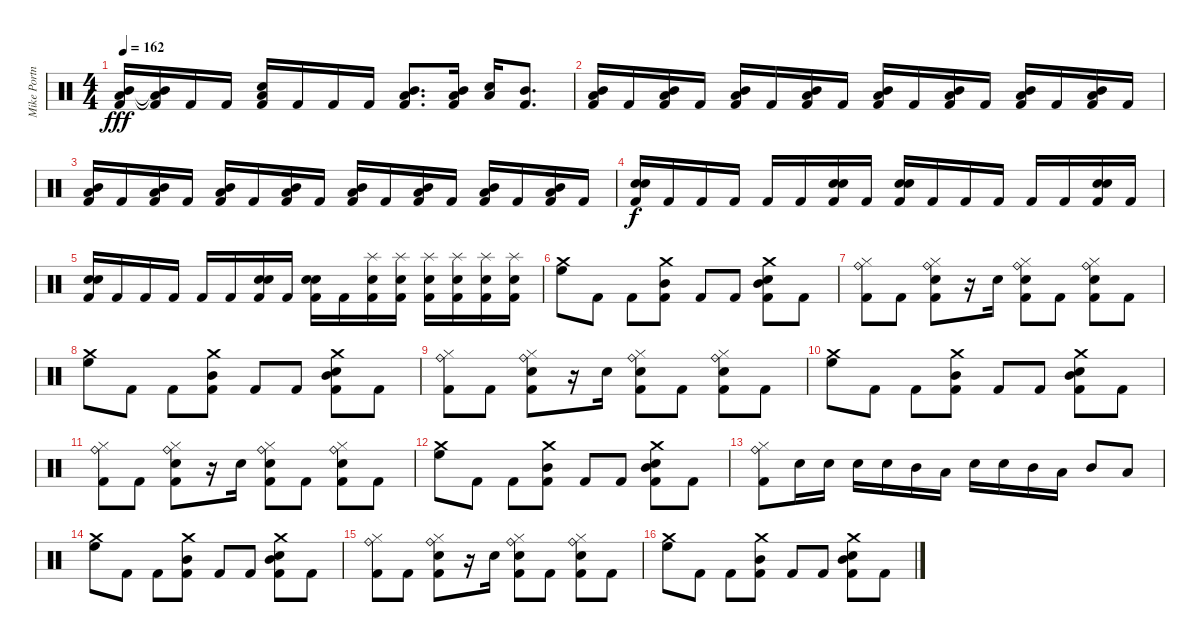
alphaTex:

\track ("Mike Portnoy" "Mike Portn") {instrument percussion}
\staff {score}
\articulation defaults
\ts (4 4)
\tempo 162
\clef neutral
\ks c
("Mid Tom (hit)" "Low Tom (hit)" "Kick (hit) 2").16{dy fff} ("Mid Tom (hit)"{t} "Low Tom (hit)"{t} "Kick (hit) 2").16 "Kick (hit) 2".16 "Kick (hit) 2".16 ("Electric Snare (hit)" "Low Tom (hit)" "Kick (hit) 2").16 "Kick (hit) 2".16 "Kick (hit) 2".16 "Kick (hit) 2".16 ("Mid Tom (hit)" "Low Tom (hit)" "Kick (hit) 2").8{d} ("Mid Tom (hit)" "Low Tom (hit)" "Kick (hit) 2").16 ("Electric Snare (hit)" "Low Tom (hit)").16 ("Mid Tom (hit)" "Kick (hit) 2").8{d} |
("Mid Tom (hit)" "Low Tom (hit)" "Kick (hit) 2").16 "Kick (hit) 2".16 ("Mid Tom (hit)" "Low Tom (hit)" "Kick (hit) 2").16 "Kick (hit) 2".16 ("Mid Tom (hit)" "Low Tom (hit)" "Kick (hit) 2").16 "Kick (hit) 2".16 ("Mid Tom (hit)" "Low Tom (hit)" "Kick (hit) 2").16 "Kick (hit) 2".16 ("Mid Tom (hit)" "Low Tom (hit)" "Kick (hit) 2").16 "Kick (hit) 2".16 ("Mid Tom (hit)" "Low Tom (hit)" "Kick (hit) 2").16 "Kick (hit) 2".16 ("Mid Tom (hit)" "Low Tom (hit)" "Kick (hit) 2").16 "Kick (hit) 2".16 ("Mid Tom (hit)" "Low Tom (hit)" "Kick (hit) 2").16 "Kick (hit) 2".16 |
("Mid Tom (hit)" "Low Tom (hit)" "Kick (hit) 2").16 "Kick (hit) 2".16 ("Mid Tom (hit)" "Low Tom (hit)" "Kick (hit) 2").16 "Kick (hit) 2".16 ("Mid Tom (hit)" "Low Tom (hit)" "Kick (hit) 2").16 "Kick (hit) 2".16 ("Mid Tom (hit)" "Low Tom (hit)" "Kick (hit) 2").16 "Kick (hit) 2".16 ("Mid Tom (hit)" "Low Tom (hit)" "Kick (hit) 2").16 "Kick (hit) 2".16 ("Mid Tom (hit)" "Low Tom (hit)" "Kick (hit) 2").16 "Kick (hit) 2".16 ("Mid Tom (hit)" "Low Tom (hit)" "Kick (hit) 2").16 "Kick (hit) 2".16 ("Mid Tom (hit)" "Low Tom (hit)" "Kick (hit) 2").16 "Kick (hit) 2".16 |
("Snare (hit) 2" "Electric Snare (hit)" "Kick (hit) 2").16{dy f} "Kick (hit) 2".16 "Kick (hit) 2".16 "Kick (hit) 2".16 "Kick (hit) 2".16 "Kick (hit) 2".16 ("Snare (hit) 2" "Electric Snare (hit)" "Kick (hit) 2").16 "Kick (hit) 2".16 ("Snare (hit) 2" "Electric Snare (hit)" "Kick (hit) 2").16 "Kick (hit) 2".16 "Kick (hit) 2".16 "Kick (hit) 2".16 "Kick (hit) 2".16 "Kick (hit) 2".16 ("Snare (hit) 2" "Electric Snare (hit)" "Kick (hit) 2").16 "Kick (hit) 2".16 |
("Snare (hit) 2" "Electric Snare (hit)" "Kick (hit) 2").16 "Kick (hit) 2".16 "Kick (hit) 2".16 "Kick (hit) 2".16 "Kick (hit) 2".16 "Kick (hit) 2".16 ("Snare (hit) 2" "Electric Snare (hit)" "Kick (hit) 2").16 "Kick (hit) 2".16 ("Snare (hit) 2" "Electric Snare (hit)" "Kick (hit) 2").16 "Kick (hit) 2".16 ("Splash (hit)" "Electric Snare (hit)" "Kick (hit) 2").16 ("Splash (hit)" "Electric Snare (hit)" "Kick (hit) 2").16 ("Splash (hit)" "Electric Snare (hit)" "Kick (hit) 2").16 ("Splash (hit)" "Electric Snare (hit)" "Kick (hit) 2").16 ("Splash (hit)" "Electric Snare (hit)" "Kick (hit) 2").16 ("Splash (hit)" "Electric Snare (hit)" "Kick (hit) 2").16 |
("Crash medium (hit)" "High Floor Tom (hit)").8 "Kick (hit) 2".8 "Kick (hit) 2".8 ("Crash medium (hit)" "Mid Tom (hit)" "Kick (hit) 2").8 "Kick (hit) 2".8 "Kick (hit) 2".8 ("Crash medium (hit)" "Electric Snare (hit)" "Mid Tom (hit)" "Kick (hit) 2").8 "Kick (hit) 2".8 |
("Ride (bell)" "Hi-Hat (closed)" "Kick (hit) 2").8 "Kick (hit) 2".8 ("Ride (bell)" "Hi-Hat (closed)" "Snare (hit) 2" "Kick (hit) 2").8 r.16 "Electric Snare (hit)".16 ("Ride (bell)" "Hi-Hat (closed)" "Snare (hit) 2" "Kick (hit) 2").8 "Kick (hit) 2".8 ("Ride (bell)" "Hi-Hat (closed)" "Snare (hit) 2" "Kick (hit) 2").8 "Kick (hit) 2".8 |
("Crash medium (hit)" "High Floor Tom (hit)").8 "Kick (hit) 2".8 "Kick (hit) 2".8 ("Crash medium (hit)" "Mid Tom (hit)" "Kick (hit) 2").8 "Kick (hit) 2".8 "Kick (hit) 2".8 ("Crash medium (hit)" "Electric Snare (hit)" "Mid Tom (hit)" "Kick (hit) 2").8 "Kick (hit) 2".8 |
("Ride (bell)" "Hi-Hat (closed)" "Kick (hit) 2").8 "Kick (hit) 2".8 ("Ride (bell)" "Hi-Hat (closed)" "Snare (hit) 2" "Kick (hit) 2").8 r.16 "Electric Snare (hit)".16 ("Ride (bell)" "Hi-Hat (closed)" "Snare (hit) 2" "Kick (hit) 2").8 "Kick (hit) 2".8 ("Ride (bell)" "Hi-Hat (closed)" "Snare (hit) 2" "Kick (hit) 2").8 "Kick (hit) 2".8 |
("Crash medium (hit)" "High Floor Tom (hit)").8 "Kick (hit) 2".8 "Kick (hit) 2".8 ("Crash medium (hit)" "Mid Tom (hit)" "Kick (hit) 2").8 "Kick (hit) 2".8 "Kick (hit) 2".8 ("Crash medium (hit)" "Electric Snare (hit)" "Mid Tom (hit)" "Kick (hit) 2").8 "Kick (hit) 2".8 |
("Ride (bell)" "Hi-Hat (closed)" "Kick (hit) 2").8 "Kick (hit) 2".8 ("Ride (bell)" "Hi-Hat (closed)" "Snare (hit) 2" "Kick (hit) 2").8 r.16 "Electric Snare (hit)".16 ("Ride (bell)" "Hi-Hat (closed)" "Snare (hit) 2" "Kick (hit) 2").8 "Kick (hit) 2".8 ("Ride (bell)" "Hi-Hat (closed)" "Snare (hit) 2" "Kick (hit) 2").8 "Kick (hit) 2".8 |
("Crash medium (hit)" "High Floor Tom (hit)").8 "Kick (hit) 2".8 "Kick (hit) 2".8 ("Crash medium (hit)" "Mid Tom (hit)" "Kick (hit) 2").8 "Kick (hit) 2".8 "Kick (hit) 2".8 ("Crash medium (hit)" "Electric Snare (hit)" "Mid Tom (hit)" "Kick (hit) 2").8 "Kick (hit) 2".8 |
("Ride (bell)" "Hi-Hat (closed)" "Kick (hit) 2").8 "Electric Snare (hit)".16 "Electric Snare (hit)".16 "Electric Snare (hit)".16 "Electric Snare (hit)".16 "Mid Tom (hit)".16 "Low Tom (hit)".16 "Electric Snare (hit)".16 "Electric Snare (hit)".16 "Mid Tom (hit)".16 "Low Tom (hit)".16 "Mid Tom (hit)".8 "Low Tom (hit)".8 |
("Crash medium (hit)" "High Floor Tom (hit)").8 "Kick (hit) 2".8 "Kick (hit) 2".8 ("Crash medium (hit)" "Mid Tom (hit)" "Kick (hit) 2").8 "Kick (hit) 2".8 "Kick (hit) 2".8 ("Crash medium (hit)" "Electric Snare (hit)" "Mid Tom (hit)" "Kick (hit) 2").8 "Kick (hit) 2".8 |
("Ride (bell)" "Hi-Hat (closed)" "Kick (hit) 2").8 "Kick (hit) 2".8 ("Ride (bell)" "Hi-Hat (closed)" "Snare (hit) 2" "Kick (hit) 2").8 r.16 "Electric Snare (hit)".16 ("Ride (bell)" "Hi-Hat (closed)" "Snare (hit) 2" "Kick (hit) 2").8 "Kick (hit) 2".8 ("Ride (bell)" "Hi-Hat (closed)" "Snare (hit) 2" "Kick (hit) 2").8 "Kick (hit) 2".8 |
("Crash medium (hit)" "High Floor Tom (hit)").8 "Kick (hit) 2".8 "Kick (hit) 2".8 ("Crash medium (hit)" "Mid Tom (hit)" "Kick (hit) 2").8 "Kick (hit) 2".8 "Kick (hit) 2".8 ("Crash medium (hit)" "Electric Snare (hit)" "Mid Tom (hit)" "Kick (hit) 2").8 "Kick (hit) 2".8
